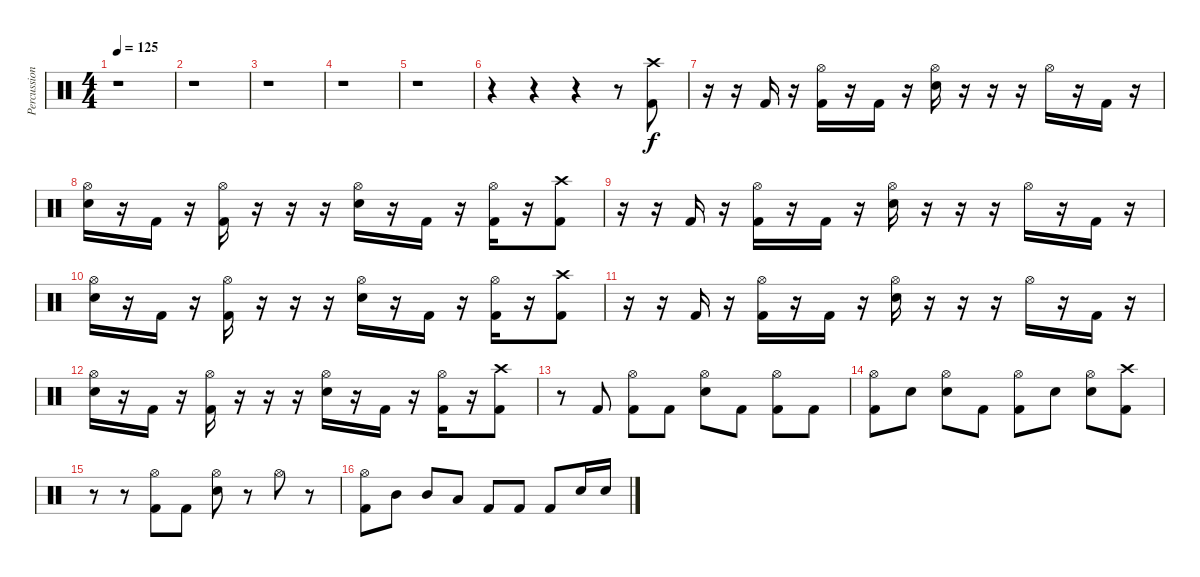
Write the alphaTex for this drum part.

\track ("Percussion" "Percussion") {instrument percussion}
\staff {score}
\articulation defaults
\ts (4 4)
\tempo 125
\clef neutral
\ks c
r.1{dy f} |
r.1 |
r.1 |
r.1 |
r.1 |
r.4 r.4 r.4 r.8 ("Crash high (hit)" "Kick (hit) 2").8 |
r.16 r.16 "Kick (hit) 2".16 r.16 ("Hi-Hat (open)" "Kick (hit) 2").16 r.16 "Kick (hit) 2".16 r.16 ("Hi-Hat (open)" "Electric Snare (hit)").16 r.16 r.16 r.16 "Hi-Hat (open)".16 r.16 "Kick (hit) 2".16 r.16 |
("Hi-Hat (open)" "Electric Snare (hit)").16 r.16 "Kick (hit) 2".16 r.16 ("Hi-Hat (open)" "Kick (hit) 2").16 r.16 r.16 r.16 ("Hi-Hat (open)" "Electric Snare (hit)").16 r.16 "Kick (hit) 2".16 r.16 ("Hi-Hat (open)" "Kick (hit) 2").16 r.16 ("Crash high (hit)" "Kick (hit) 2").8 |
r.16 r.16 "Kick (hit) 2".16 r.16 ("Hi-Hat (open)" "Kick (hit) 2").16 r.16 "Kick (hit) 2".16 r.16 ("Hi-Hat (open)" "Electric Snare (hit)").16 r.16 r.16 r.16 "Hi-Hat (open)".16 r.16 "Kick (hit) 2".16 r.16 |
("Hi-Hat (open)" "Electric Snare (hit)").16 r.16 "Kick (hit) 2".16 r.16 ("Hi-Hat (open)" "Kick (hit) 2").16 r.16 r.16 r.16 ("Hi-Hat (open)" "Electric Snare (hit)").16 r.16 "Kick (hit) 2".16 r.16 ("Hi-Hat (open)" "Kick (hit) 2").16 r.16 ("Crash high (hit)" "Kick (hit) 2").8 |
r.16 r.16 "Kick (hit) 2".16 r.16 ("Hi-Hat (open)" "Kick (hit) 2").16 r.16 "Kick (hit) 2".16 r.16 ("Hi-Hat (open)" "Electric Snare (hit)").16 r.16 r.16 r.16 "Hi-Hat (open)".16 r.16 "Kick (hit) 2".16 r.16 |
("Hi-Hat (open)" "Electric Snare (hit)").16 r.16 "Kick (hit) 2".16 r.16 ("Hi-Hat (open)" "Kick (hit) 2").16 r.16 r.16 r.16 ("Hi-Hat (open)" "Electric Snare (hit)").16 r.16 "Kick (hit) 2".16 r.16 ("Hi-Hat (open)" "Kick (hit) 2").16 r.16 ("Crash high (hit)" "Kick (hit) 2").8 |
r.8 "Kick (hit) 2".8 ("Hi-Hat (open)" "Kick (hit) 2").8 "Kick (hit) 2".8 ("Hi-Hat (open)" "Electric Snare (hit)").8 "Kick (hit) 2".8 ("Hi-Hat (open)" "Kick (hit) 2").8 "Kick (hit) 2".8 |
("Hi-Hat (open)" "Kick (hit) 2").8 "Electric Snare (hit)".8 ("Hi-Hat (open)" "Electric Snare (hit)").8 "Kick (hit) 2".8 ("Hi-Hat (open)" "Kick (hit) 2").8 "Electric Snare (hit)".8 ("Hi-Hat (open)" "Electric Snare (hit)").8 ("Crash high (hit)" "Kick (hit) 2").8 |
r.8 r.8 ("Hi-Hat (open)" "Kick (hit) 2").8 "Kick (hit) 2".8 ("Hi-Hat (open)" "Electric Snare (hit)").8 r.8 "Hi-Hat (open)".8 r.8 |
("Hi-Hat (open)" "Kick (hit) 2").8 "Mid Tom (hit)".8 "Mid Tom (hit)".8 "Low Tom (hit)".8 "Kick (hit) 2".8 "Kick (hit) 2".8 "Kick (hit) 2".8 "Electric Snare (hit)".16 "Electric Snare (hit)".16
